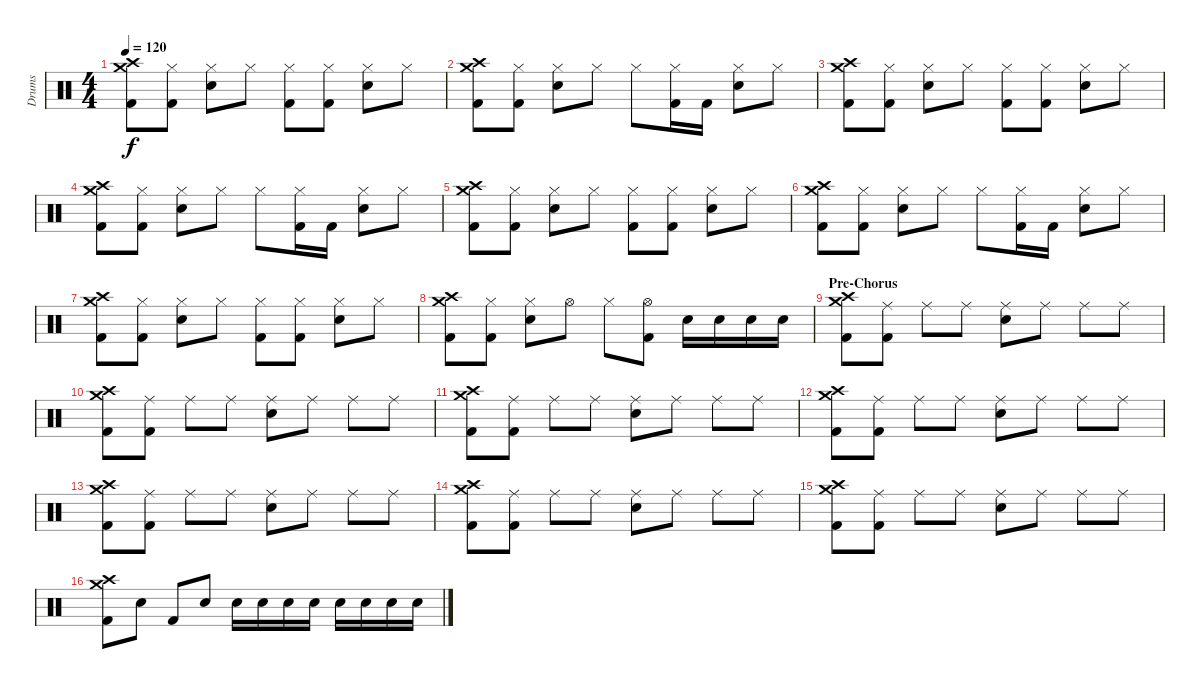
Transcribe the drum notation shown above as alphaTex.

\track ("Drums" "Drums") {instrument percussion}
\staff {score}
\articulation defaults
\ts (4 4)
\tempo 120
\clef neutral
\ks c
("Crash high (hit)" "Crash medium (hit)" "Kick (hit) 2").8{dy f} ("Hi-Hat (closed)" "Kick (hit) 2").8 ("Hi-Hat (closed)" "Snare (hit) 2").8 "Hi-Hat (closed)".8 ("Hi-Hat (closed)" "Kick (hit) 2").8 ("Hi-Hat (closed)" "Kick (hit) 2").8 ("Hi-Hat (closed)" "Snare (hit) 2").8 "Hi-Hat (closed)".8 |
("Crash high (hit)" "Crash medium (hit)" "Kick (hit) 2").8 ("Hi-Hat (closed)" "Kick (hit) 2").8 ("Hi-Hat (closed)" "Snare (hit) 2").8 "Hi-Hat (closed)".8 "Hi-Hat (closed)".8 ("Hi-Hat (closed)" "Kick (hit) 2").16 "Kick (hit) 2".16 ("Hi-Hat (closed)" "Snare (hit) 2").8 "Hi-Hat (closed)".8 |
("Crash high (hit)" "Crash medium (hit)" "Kick (hit) 2").8 ("Hi-Hat (closed)" "Kick (hit) 2").8 ("Hi-Hat (closed)" "Snare (hit) 2").8 "Hi-Hat (closed)".8 ("Hi-Hat (closed)" "Kick (hit) 2").8 ("Hi-Hat (closed)" "Kick (hit) 2").8 ("Hi-Hat (closed)" "Snare (hit) 2").8 "Hi-Hat (closed)".8 |
("Crash high (hit)" "Crash medium (hit)" "Kick (hit) 2").8 ("Hi-Hat (closed)" "Kick (hit) 2").8 ("Hi-Hat (closed)" "Snare (hit) 2").8 "Hi-Hat (closed)".8 "Hi-Hat (closed)".8 ("Hi-Hat (closed)" "Kick (hit) 2").16 "Kick (hit) 2".16 ("Hi-Hat (closed)" "Snare (hit) 2").8 "Hi-Hat (closed)".8 |
("Crash high (hit)" "Crash medium (hit)" "Kick (hit) 2").8 ("Hi-Hat (closed)" "Kick (hit) 2").8 ("Hi-Hat (closed)" "Snare (hit) 2").8 "Hi-Hat (closed)".8 ("Hi-Hat (closed)" "Kick (hit) 2").8 ("Hi-Hat (closed)" "Kick (hit) 2").8 ("Hi-Hat (closed)" "Snare (hit) 2").8 "Hi-Hat (closed)".8 |
("Crash high (hit)" "Crash medium (hit)" "Kick (hit) 2").8 ("Hi-Hat (closed)" "Kick (hit) 2").8 ("Hi-Hat (closed)" "Snare (hit) 2").8 "Hi-Hat (closed)".8 "Hi-Hat (closed)".8 ("Hi-Hat (closed)" "Kick (hit) 2").16 "Kick (hit) 2".16 ("Hi-Hat (closed)" "Snare (hit) 2").8 "Hi-Hat (closed)".8 |
("Crash high (hit)" "Crash medium (hit)" "Kick (hit) 2").8 ("Hi-Hat (closed)" "Kick (hit) 2").8 ("Hi-Hat (closed)" "Snare (hit) 2").8 "Hi-Hat (closed)".8 ("Hi-Hat (closed)" "Kick (hit) 2").8 ("Hi-Hat (closed)" "Kick (hit) 2").8 ("Hi-Hat (closed)" "Snare (hit) 2").8 "Hi-Hat (closed)".8 |
("Crash high (hit)" "Crash medium (hit)" "Kick (hit) 2").8 ("Hi-Hat (closed)" "Kick (hit) 2").8 ("Hi-Hat (closed)" "Snare (hit) 2").8 "Hi-Hat (open)".8 "Hi-Hat (closed)".8 ("Hi-Hat (open)" "Kick (hit) 2").8 "Snare (hit) 2".16 "Snare (hit) 2".16 "Snare (hit) 2".16 "Snare (hit) 2".16 |
\section ("" "Pre-Chorus")
("Crash high (hit)" "Crash medium (hit)" "Kick (hit) 2").8 ("Ride (middle)" "Kick (hit) 2").8 "Ride (middle)".8 "Ride (middle)".8 ("Ride (middle)" "Snare (hit) 2").8 "Ride (middle)".8 "Ride (middle)".8 "Ride (middle)".8 |
("Crash high (hit)" "Crash medium (hit)" "Kick (hit) 2").8 ("Ride (middle)" "Kick (hit) 2").8 "Ride (middle)".8 "Ride (middle)".8 ("Ride (middle)" "Snare (hit) 2").8 "Ride (middle)".8 "Ride (middle)".8 "Ride (middle)".8 |
("Crash high (hit)" "Crash medium (hit)" "Kick (hit) 2").8 ("Ride (middle)" "Kick (hit) 2").8 "Ride (middle)".8 "Ride (middle)".8 ("Ride (middle)" "Snare (hit) 2").8 "Ride (middle)".8 "Ride (middle)".8 "Ride (middle)".8 |
("Crash high (hit)" "Crash medium (hit)" "Kick (hit) 2").8 ("Ride (middle)" "Kick (hit) 2").8 "Ride (middle)".8 "Ride (middle)".8 ("Ride (middle)" "Snare (hit) 2").8 "Ride (middle)".8 "Ride (middle)".8 "Ride (middle)".8 |
("Crash high (hit)" "Crash medium (hit)" "Kick (hit) 2").8 ("Ride (middle)" "Kick (hit) 2").8 "Ride (middle)".8 "Ride (middle)".8 ("Ride (middle)" "Snare (hit) 2").8 "Ride (middle)".8 "Ride (middle)".8 "Ride (middle)".8 |
("Crash high (hit)" "Crash medium (hit)" "Kick (hit) 2").8 ("Ride (middle)" "Kick (hit) 2").8 "Ride (middle)".8 "Ride (middle)".8 ("Ride (middle)" "Snare (hit) 2").8 "Ride (middle)".8 "Ride (middle)".8 "Ride (middle)".8 |
("Crash high (hit)" "Crash medium (hit)" "Kick (hit) 2").8 ("Ride (middle)" "Kick (hit) 2").8 "Ride (middle)".8 "Ride (middle)".8 ("Ride (middle)" "Snare (hit) 2").8 "Ride (middle)".8 "Ride (middle)".8 "Ride (middle)".8 |
("Crash high (hit)" "Crash medium (hit)" "Kick (hit) 2").8 "Snare (hit) 2".8 "Kick (hit) 2".8 "Snare (hit) 2".8 "Snare (hit) 2".16 "Snare (hit) 2".16 "Snare (hit) 2".16 "Snare (hit) 2".16 "Snare (hit) 2".16 "Snare (hit) 2".16 "Snare (hit) 2".16 "Snare (hit) 2".16
